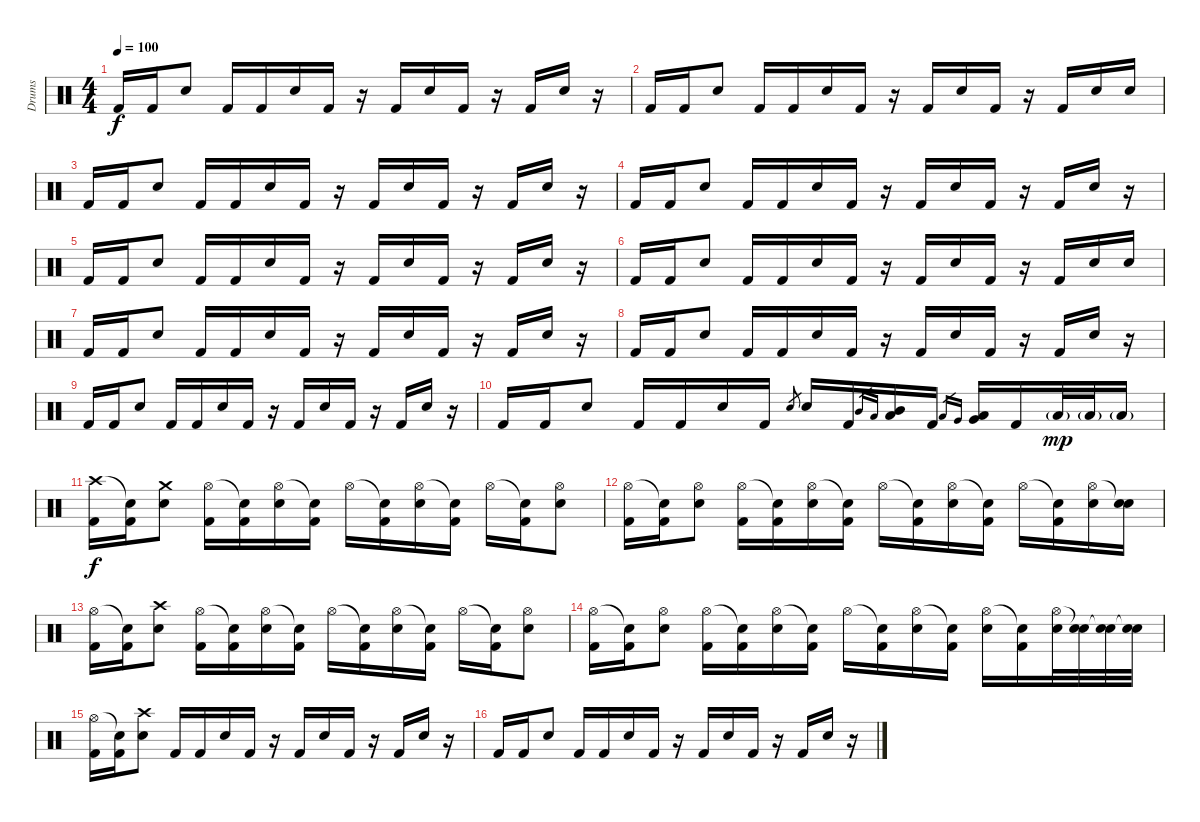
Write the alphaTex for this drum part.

\track ("Drums" "Drums") {instrument percussion}
\staff {score}
\articulation defaults
\ts (4 4)
\tempo 100
\clef neutral
\ks c "Kick (hit) 2".16{dy f} "Kick (hit) 2".16 "Electric Snare (hit)".8 "Kick (hit) 2".16 "Kick (hit) 2".16 "Electric Snare (hit)".16 "Kick (hit) 2".16
r.16 "Kick (hit) 2".16 "Electric Snare (hit)".16 "Kick (hit) 2".16 r.16 "Kick (hit) 2".16 "Electric Snare (hit)".16 r.16 |
"Kick (hit) 2".16 "Kick (hit) 2".16 "Electric Snare (hit)".8 "Kick (hit) 2".16 "Kick (hit) 2".16 "Electric Snare (hit)".16 "Kick (hit) 2".16 r.16 "Kick (hit) 2".16 "Electric Snare (hit)".16 "Kick (hit) 2".16 r.16 "Kick (hit) 2".16 "Electric Snare (hit)".16 "Electric Snare (hit)".16 |
"Kick (hit) 2".16 "Kick (hit) 2".16 "Electric Snare (hit)".8 "Kick (hit) 2".16 "Kick (hit) 2".16 "Electric Snare (hit)".16 "Kick (hit) 2".16 r.16 "Kick (hit) 2".16 "Electric Snare (hit)".16 "Kick (hit) 2".16 r.16 "Kick (hit) 2".16 "Electric Snare (hit)".16 r.16 |
"Kick (hit) 2".16 "Kick (hit) 2".16 "Electric Snare (hit)".8 "Kick (hit) 2".16 "Kick (hit) 2".16 "Electric Snare (hit)".16 "Kick (hit) 2".16 r.16 "Kick (hit) 2".16 "Electric Snare (hit)".16 "Kick (hit) 2".16 r.16 "Kick (hit) 2".16 "Electric Snare (hit)".16 r.16 |
"Kick (hit) 2".16 "Kick (hit) 2".16 "Electric Snare (hit)".8 "Kick (hit) 2".16 "Kick (hit) 2".16 "Electric Snare (hit)".16 "Kick (hit) 2".16 r.16 "Kick (hit) 2".16 "Electric Snare (hit)".16 "Kick (hit) 2".16 r.16 "Kick (hit) 2".16 "Electric Snare (hit)".16 r.16 |
"Kick (hit) 2".16 "Kick (hit) 2".16 "Electric Snare (hit)".8 "Kick (hit) 2".16 "Kick (hit) 2".16 "Electric Snare (hit)".16 "Kick (hit) 2".16 r.16 "Kick (hit) 2".16 "Electric Snare (hit)".16 "Kick (hit) 2".16 r.16 "Kick (hit) 2".16 "Electric Snare (hit)".16 "Electric Snare (hit)".16 |
"Kick (hit) 2".16 "Kick (hit) 2".16 "Electric Snare (hit)".8 "Kick (hit) 2".16 "Kick (hit) 2".16 "Electric Snare (hit)".16 "Kick (hit) 2".16 r.16 "Kick (hit) 2".16 "Electric Snare (hit)".16 "Kick (hit) 2".16 r.16 "Kick (hit) 2".16 "Electric Snare (hit)".16 r.16 |
"Kick (hit) 2".16 "Kick (hit) 2".16 "Electric Snare (hit)".8 "Kick (hit) 2".16 "Kick (hit) 2".16 "Electric Snare (hit)".16 "Kick (hit) 2".16 r.16 "Kick (hit) 2".16 "Electric Snare (hit)".16 "Kick (hit) 2".16 r.16 "Kick (hit) 2".16 "Electric Snare (hit)".16 r.16 |
"Kick (hit) 2".16 "Kick (hit) 2".16 "Electric Snare (hit)".8 "Kick (hit) 2".16 "Kick (hit) 2".16 "Electric Snare (hit)".16 "Kick (hit) 2".16 r.16 "Kick (hit) 2".16 "Electric Snare (hit)".16 "Kick (hit) 2".16 r.16 "Kick (hit) 2".16 "Electric Snare (hit)".16 r.16 |
"Kick (hit) 2".16 "Kick (hit) 2".16 "Electric Snare (hit)".8 "Kick (hit) 2".16 "Kick (hit) 2".16 "Electric Snare (hit)".16 "Kick (hit) 2".16 "Electric Snare (hit)".8{gr} "Electric Snare (hit)".16 "Kick (hit) 2".16 "Mid Tom (hit)".16{gr} "Low Tom (hit)".16{gr} ("Mid Tom (hit)" "Low Tom (hit)").16 "Kick (hit) 2".16 "Low Tom (hit)".16{gr} "Very Low Tom (hit)".16{gr} ("Low Tom (hit)" "Very Low Tom (hit)").16 "Kick (hit) 2".16 "Low Floor Tom (hit)"{g}.32{dy mp} "Low Floor Tom (hit)"{g}.32 "Low Floor Tom (hit)"{g}.16 |
("Crash high (hit)" "Kick (hit) 2").16{dy f} ("Snare (hit)"{t} "Kick (hit) 2").16 ("Crash medium (hit)" "Electric Snare (hit)").8 ("Hi-Hat (open)" "Kick (hit) 2").16 ("Snare (hit)"{t} "Kick (hit) 2").16 ("Hi-Hat (open)" "Electric Snare (hit)").16 ("Snare (hit)"{t} "Kick (hit) 2").16 "Hi-Hat (open)".16 ("Snare (hit)"{t} "Kick (hit) 2").16 ("Hi-Hat (open)" "Electric Snare (hit)").16 ("Snare (hit)"{t} "Kick (hit) 2").16 "Hi-Hat (open)".16 ("Snare (hit)"{t} "Kick (hit) 2").16 ("Hi-Hat (open)" "Electric Snare (hit)").8 |
("Hi-Hat (open)" "Kick (hit) 2").16 ("Snare (hit)"{t} "Kick (hit) 2").16 ("Hi-Hat (open)" "Electric Snare (hit)").8 ("Hi-Hat (open)" "Kick (hit) 2").16 ("Snare (hit)"{t} "Kick (hit) 2").16 ("Hi-Hat (open)" "Electric Snare (hit)").16 ("Snare (hit)"{t} "Kick (hit) 2").16 "Hi-Hat (open)".16 ("Snare (hit)"{t} "Kick (hit) 2").16 ("Hi-Hat (open)" "Electric Snare (hit)").16 ("Snare (hit)"{t} "Kick (hit) 2").16 "Hi-Hat (open)".16 ("Snare (hit)"{t} "Kick (hit) 2").16 ("Hi-Hat (open)" "Electric Snare (hit)").16 ("Snare (hit)"{t} "Electric Snare (hit)").16 |
("Hi-Hat (open)" "Kick (hit) 2").16 ("Snare (hit)"{t} "Kick (hit) 2").16 ("Crash high (hit)" "Electric Snare (hit)").8 ("Hi-Hat (open)" "Kick (hit) 2").16 ("Snare (hit)"{t} "Kick (hit) 2").16 ("Hi-Hat (open)" "Electric Snare (hit)").16 ("Snare (hit)"{t} "Kick (hit) 2").16 "Hi-Hat (open)".16 ("Snare (hit)"{t} "Kick (hit) 2").16 ("Hi-Hat (open)" "Electric Snare (hit)").16 ("Snare (hit)"{t} "Kick (hit) 2").16 "Hi-Hat (open)".16 ("Snare (hit)"{t} "Kick (hit) 2").16 ("Hi-Hat (open)" "Electric Snare (hit)").8 |
("Hi-Hat (open)" "Kick (hit) 2").16 ("Snare (hit)"{t} "Kick (hit) 2").16 ("Hi-Hat (open)" "Electric Snare (hit)").8 ("Hi-Hat (open)" "Kick (hit) 2").16 ("Snare (hit)"{t} "Kick (hit) 2").16 ("Hi-Hat (open)" "Electric Snare (hit)").16 ("Snare (hit)"{t} "Kick (hit) 2").16 "Hi-Hat (open)".16 ("Snare (hit)"{t} "Kick (hit) 2").16 ("Hi-Hat (open)" "Electric Snare (hit)").16 ("Snare (hit)"{t} "Kick (hit) 2").16 ("Hi-Hat (open)" "Electric Snare (hit)").16 ("Snare (hit)"{t} "Kick (hit) 2").16 ("Hi-Hat (open)" "Electric Snare (hit)").32 ("Snare (hit)"{t} "Electric Snare (hit)").32 ("Snare (hit)"{t} "Electric Snare (hit)").32 ("Snare (hit)"{t} "Electric Snare (hit)").32 |
("Hi-Hat (open)" "Kick (hit) 2").16 ("Snare (hit)"{t} "Kick (hit) 2").16 ("Crash high (hit)" "Electric Snare (hit)").8 "Kick (hit) 2".16 "Kick (hit) 2".16 "Electric Snare (hit)".16 "Kick (hit) 2".16 r.16 "Kick (hit) 2".16 "Electric Snare (hit)".16 "Kick (hit) 2".16 r.16 "Kick (hit) 2".16 "Electric Snare (hit)".16 r.16 |
"Kick (hit) 2".16 "Kick (hit) 2".16 "Electric Snare (hit)".8 "Kick (hit) 2".16 "Kick (hit) 2".16 "Electric Snare (hit)".16 "Kick (hit) 2".16 r.16 "Kick (hit) 2".16 "Electric Snare (hit)".16 "Kick (hit) 2".16 r.16 "Kick (hit) 2".16 "Electric Snare (hit)".16 r.16
